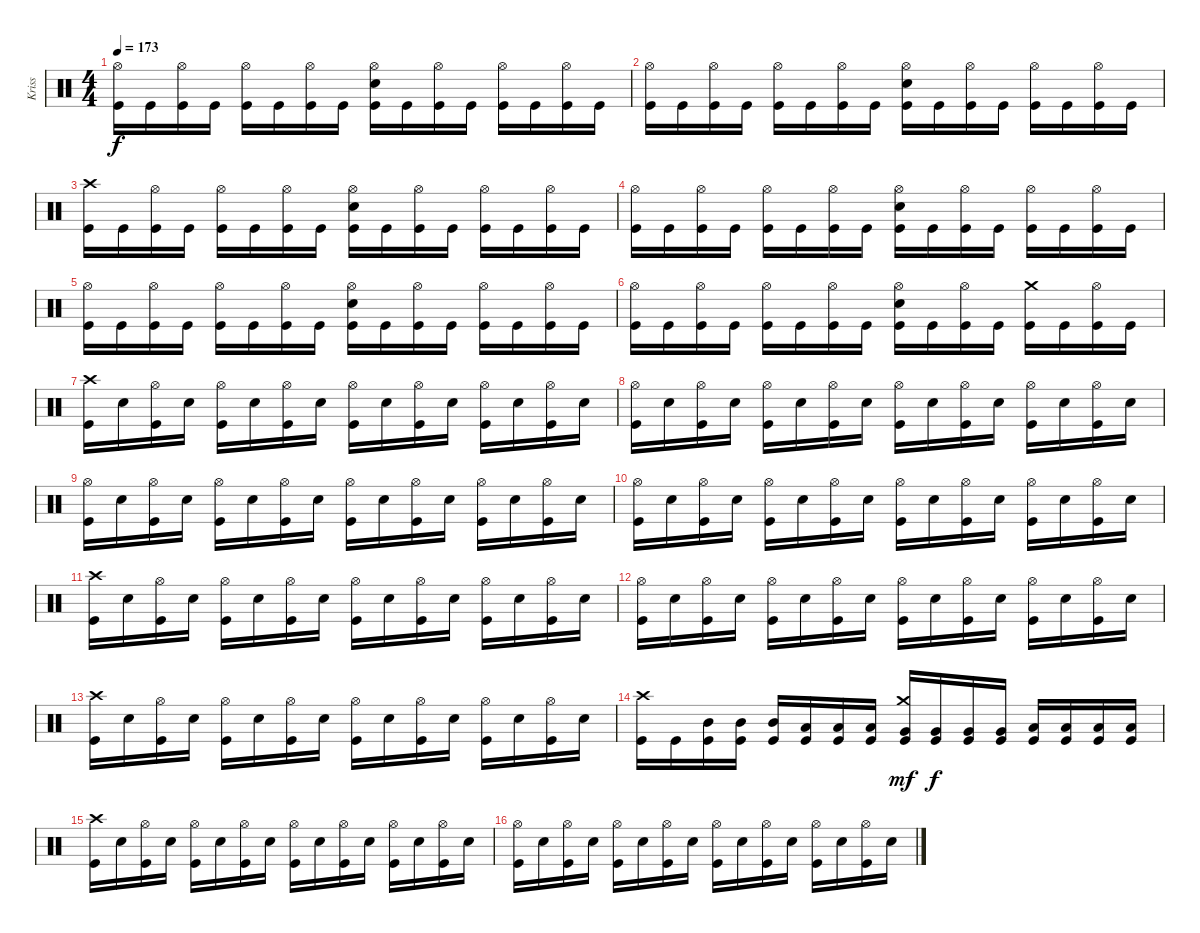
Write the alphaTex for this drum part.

\track ("Kriss" "Kriss") {instrument percussion}
\staff {score}
\articulation defaults
\ts (4 4)
\tempo 173
\clef neutral
\ks c
("Hi-Hat (open)" "Kick (hit)").16{dy f} "Kick (hit)".16 ("Hi-Hat (open)" "Kick (hit)").16 "Kick (hit)".16 ("Hi-Hat (open)" "Kick (hit)").16 "Kick (hit)".16 ("Hi-Hat (open)" "Kick (hit)").16 "Kick (hit)".16 ("Hi-Hat (open)" "Snare (hit) 2" "Kick (hit)").16 "Kick (hit)".16 ("Hi-Hat (open)" "Kick (hit)").16 "Kick (hit)".16 ("Hi-Hat (open)" "Kick (hit)").16 "Kick (hit)".16 ("Hi-Hat (open)" "Kick (hit)").16 "Kick (hit)".16 |
("Hi-Hat (open)" "Kick (hit)").16 "Kick (hit)".16 ("Hi-Hat (open)" "Kick (hit)").16 "Kick (hit)".16 ("Hi-Hat (open)" "Kick (hit)").16 "Kick (hit)".16 ("Hi-Hat (open)" "Kick (hit)").16 "Kick (hit)".16 ("Hi-Hat (open)" "Snare (hit) 2" "Kick (hit)").16 "Kick (hit)".16 ("Hi-Hat (open)" "Kick (hit)").16 "Kick (hit)".16 ("Hi-Hat (open)" "Kick (hit)").16 "Kick (hit)".16 ("Hi-Hat (open)" "Kick (hit)").16 "Kick (hit)".16 |
("Crash high (hit)" "Kick (hit)").16 "Kick (hit)".16 ("Hi-Hat (open)" "Kick (hit)").16 "Kick (hit)".16 ("Hi-Hat (open)" "Kick (hit)").16 "Kick (hit)".16 ("Hi-Hat (open)" "Kick (hit)").16 "Kick (hit)".16 ("Hi-Hat (open)" "Snare (hit) 2" "Kick (hit)").16 "Kick (hit)".16 ("Hi-Hat (open)" "Kick (hit)").16 "Kick (hit)".16 ("Hi-Hat (open)" "Kick (hit)").16 "Kick (hit)".16 ("Hi-Hat (open)" "Kick (hit)").16 "Kick (hit)".16 |
("Hi-Hat (open)" "Kick (hit)").16 "Kick (hit)".16 ("Hi-Hat (open)" "Kick (hit)").16 "Kick (hit)".16 ("Hi-Hat (open)" "Kick (hit)").16 "Kick (hit)".16 ("Hi-Hat (open)" "Kick (hit)").16 "Kick (hit)".16 ("Hi-Hat (open)" "Snare (hit) 2" "Kick (hit)").16 "Kick (hit)".16 ("Hi-Hat (open)" "Kick (hit)").16 "Kick (hit)".16 ("Hi-Hat (open)" "Kick (hit)").16 "Kick (hit)".16 ("Hi-Hat (open)" "Kick (hit)").16 "Kick (hit)".16 |
("Hi-Hat (open)" "Kick (hit)").16 "Kick (hit)".16 ("Hi-Hat (open)" "Kick (hit)").16 "Kick (hit)".16 ("Hi-Hat (open)" "Kick (hit)").16 "Kick (hit)".16 ("Hi-Hat (open)" "Kick (hit)").16 "Kick (hit)".16 ("Hi-Hat (open)" "Snare (hit) 2" "Kick (hit)").16 "Kick (hit)".16 ("Hi-Hat (open)" "Kick (hit)").16 "Kick (hit)".16 ("Hi-Hat (open)" "Kick (hit)").16 "Kick (hit)".16 ("Hi-Hat (open)" "Kick (hit)").16 "Kick (hit)".16 |
("Hi-Hat (open)" "Kick (hit)").16 "Kick (hit)".16 ("Hi-Hat (open)" "Kick (hit)").16 "Kick (hit)".16 ("Hi-Hat (open)" "Kick (hit)").16 "Kick (hit)".16 ("Hi-Hat (open)" "Kick (hit)").16 "Kick (hit)".16 ("Hi-Hat (open)" "Snare (hit) 2" "Kick (hit)").16 "Kick (hit)".16 ("Hi-Hat (open)" "Kick (hit)").16 "Kick (hit)".16 ("Crash medium (hit)" "Kick (hit)").16 "Kick (hit)".16 ("Hi-Hat (open)" "Kick (hit)").16 "Kick (hit)".16 |
("Crash high (hit)" "Kick (hit)").16 "Snare (hit) 2".16 ("Hi-Hat (open)" "Kick (hit)").16 "Snare (hit) 2".16 ("Hi-Hat (open)" "Kick (hit)").16 "Snare (hit) 2".16 ("Hi-Hat (open)" "Kick (hit)").16 "Snare (hit) 2".16 ("Hi-Hat (open)" "Kick (hit)").16 "Snare (hit) 2".16 ("Hi-Hat (open)" "Kick (hit)").16 "Snare (hit) 2".16 ("Hi-Hat (open)" "Kick (hit)").16 "Snare (hit) 2".16 ("Hi-Hat (open)" "Kick (hit)").16 "Snare (hit) 2".16 |
("Hi-Hat (open)" "Kick (hit)").16 "Snare (hit) 2".16 ("Hi-Hat (open)" "Kick (hit)").16 "Snare (hit) 2".16 ("Hi-Hat (open)" "Kick (hit)").16 "Snare (hit) 2".16 ("Hi-Hat (open)" "Kick (hit)").16 "Snare (hit) 2".16 ("Hi-Hat (open)" "Kick (hit)").16 "Snare (hit) 2".16 ("Hi-Hat (open)" "Kick (hit)").16 "Snare (hit) 2".16 ("Hi-Hat (open)" "Kick (hit)").16 "Snare (hit) 2".16 ("Hi-Hat (open)" "Kick (hit)").16 "Snare (hit) 2".16 |
("Hi-Hat (open)" "Kick (hit)").16 "Snare (hit) 2".16 ("Hi-Hat (open)" "Kick (hit)").16 "Snare (hit) 2".16 ("Hi-Hat (open)" "Kick (hit)").16 "Snare (hit) 2".16 ("Hi-Hat (open)" "Kick (hit)").16 "Snare (hit) 2".16 ("Hi-Hat (open)" "Kick (hit)").16 "Snare (hit) 2".16 ("Hi-Hat (open)" "Kick (hit)").16 "Snare (hit) 2".16 ("Hi-Hat (open)" "Kick (hit)").16 "Snare (hit) 2".16 ("Hi-Hat (open)" "Kick (hit)").16 "Snare (hit) 2".16 |
("Hi-Hat (open)" "Kick (hit)").16 "Snare (hit) 2".16 ("Hi-Hat (open)" "Kick (hit)").16 "Snare (hit) 2".16 ("Hi-Hat (open)" "Kick (hit)").16 "Snare (hit) 2".16 ("Hi-Hat (open)" "Kick (hit)").16 "Snare (hit) 2".16 ("Hi-Hat (open)" "Kick (hit)").16 "Snare (hit) 2".16 ("Hi-Hat (open)" "Kick (hit)").16 "Snare (hit) 2".16 ("Hi-Hat (open)" "Kick (hit)").16 "Snare (hit) 2".16 ("Hi-Hat (open)" "Kick (hit)").16 "Snare (hit) 2".16 |
("Crash high (hit)" "Kick (hit)").16 "Snare (hit) 2".16 ("Hi-Hat (open)" "Kick (hit)").16 "Snare (hit) 2".16 ("Hi-Hat (open)" "Kick (hit)").16 "Snare (hit) 2".16 ("Hi-Hat (open)" "Kick (hit)").16 "Snare (hit) 2".16 ("Hi-Hat (open)" "Kick (hit)").16 "Snare (hit) 2".16 ("Hi-Hat (open)" "Kick (hit)").16 "Snare (hit) 2".16 ("Hi-Hat (open)" "Kick (hit)").16 "Snare (hit) 2".16 ("Hi-Hat (open)" "Kick (hit)").16 "Snare (hit) 2".16 |
("Hi-Hat (open)" "Kick (hit)").16 "Snare (hit) 2".16 ("Hi-Hat (open)" "Kick (hit)").16 "Snare (hit) 2".16 ("Hi-Hat (open)" "Kick (hit)").16 "Snare (hit) 2".16 ("Hi-Hat (open)" "Kick (hit)").16 "Snare (hit) 2".16 ("Hi-Hat (open)" "Kick (hit)").16 "Snare (hit) 2".16 ("Hi-Hat (open)" "Kick (hit)").16 "Snare (hit) 2".16 ("Hi-Hat (open)" "Kick (hit)").16 "Snare (hit) 2".16 ("Hi-Hat (open)" "Kick (hit)").16 "Snare (hit) 2".16 |
("Crash high (hit)" "Kick (hit)").16 "Snare (hit) 2".16 ("Hi-Hat (open)" "Kick (hit)").16 "Snare (hit) 2".16 ("Hi-Hat (open)" "Kick (hit)").16 "Snare (hit) 2".16 ("Hi-Hat (open)" "Kick (hit)").16 "Snare (hit) 2".16 ("Hi-Hat (open)" "Kick (hit)").16 "Snare (hit) 2".16 ("Hi-Hat (open)" "Kick (hit)").16 "Snare (hit) 2".16 ("Hi-Hat (open)" "Kick (hit)").16 "Snare (hit) 2".16 ("Hi-Hat (open)" "Kick (hit)").16 "Snare (hit) 2".16 |
("Crash high (hit)" "Kick (hit)").16 "Kick (hit)".16 ("Mid Tom (hit)" "Kick (hit)").16 ("Mid Tom (hit)" "Kick (hit)").16 ("Mid Tom (hit)" "Kick (hit)").16 ("Low Tom (hit)" "Kick (hit)").16 ("Low Tom (hit)" "Kick (hit)").16 ("Low Tom (hit)" "Kick (hit)").16 ("Crash medium (hit)" "Very Low Tom (hit)" "Kick (hit)").16{dy mf} ("Very Low Tom (hit)" "Kick (hit)").16{dy f} ("Very Low Tom (hit)" "Kick (hit)").16 ("Very Low Tom (hit)" "Kick (hit)").16 ("Low Floor Tom (hit)" "Kick (hit)").16 ("Low Floor Tom (hit)" "Kick (hit)").16 ("Low Floor Tom (hit)" "Kick (hit)").16 ("Low Floor Tom (hit)" "Kick (hit)").16 |
("Crash high (hit)" "Kick (hit)").16 "Snare (hit) 2".16 ("Hi-Hat (open)" "Kick (hit)").16 "Snare (hit) 2".16 ("Hi-Hat (open)" "Kick (hit)").16 "Snare (hit) 2".16 ("Hi-Hat (open)" "Kick (hit)").16 "Snare (hit) 2".16 ("Hi-Hat (open)" "Kick (hit)").16 "Snare (hit) 2".16 ("Hi-Hat (open)" "Kick (hit)").16 "Snare (hit) 2".16 ("Hi-Hat (open)" "Kick (hit)").16 "Snare (hit) 2".16 ("Hi-Hat (open)" "Kick (hit)").16 "Snare (hit) 2".16 |
("Hi-Hat (open)" "Kick (hit)").16 "Snare (hit) 2".16 ("Hi-Hat (open)" "Kick (hit)").16 "Snare (hit) 2".16 ("Hi-Hat (open)" "Kick (hit)").16 "Snare (hit) 2".16 ("Hi-Hat (open)" "Kick (hit)").16 "Snare (hit) 2".16 ("Hi-Hat (open)" "Kick (hit)").16 "Snare (hit) 2".16 ("Hi-Hat (open)" "Kick (hit)").16 "Snare (hit) 2".16 ("Hi-Hat (open)" "Kick (hit)").16 "Snare (hit) 2".16 ("Hi-Hat (open)" "Kick (hit)").16 "Snare (hit) 2".16
